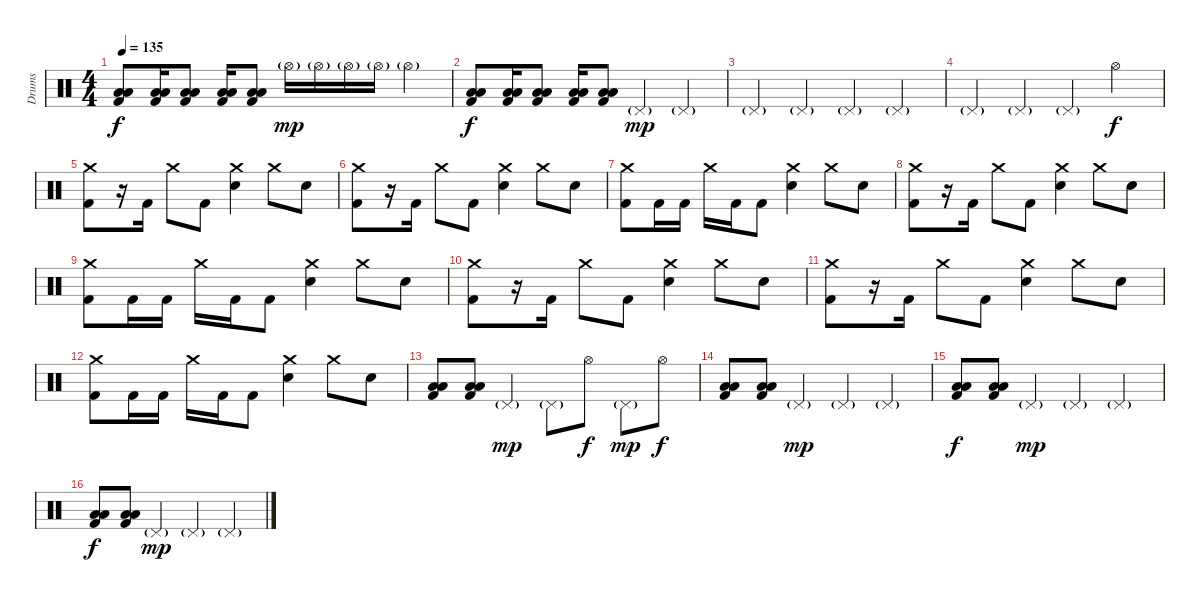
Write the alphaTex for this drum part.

\track ("Drums" "Drums") {instrument percussion}
\staff {score}
\articulation defaults
\ts (4 4)
\tempo 135
\clef neutral
\ks c
("Low Tom (hit)" "Low Floor Tom (hit)" "Kick (hit) 2").8{dy f} ("Low Tom (hit)" "Low Floor Tom (hit)" "Kick (hit) 2").16 ("Low Tom (hit)" "Low Floor Tom (hit)" "Kick (hit) 2").8 ("Low Tom (hit)" "Low Floor Tom (hit)" "Kick (hit) 2").16 ("Low Tom (hit)" "Low Floor Tom (hit)" "Kick (hit) 2").8 "Hi-Hat (open)"{g}.16{dy mp} "Hi-Hat (open)"{g}.16 "Hi-Hat (open)"{g}.16 "Hi-Hat (open)"{g}.16 "Hi-Hat (open)"{g}.4 |
("Low Tom (hit)" "Low Floor Tom (hit)" "Kick (hit) 2").8{dy f} ("Low Tom (hit)" "Low Floor Tom (hit)" "Kick (hit) 2").16 ("Low Tom (hit)" "Low Floor Tom (hit)" "Kick (hit) 2").8 ("Low Tom (hit)" "Low Floor Tom (hit)" "Kick (hit) 2").16 ("Low Tom (hit)" "Low Floor Tom (hit)" "Kick (hit) 2").8 "Pedal Hi-Hat (hit)"{g}.4{dy mp} "Pedal Hi-Hat (hit)"{g}.4 |
"Pedal Hi-Hat (hit)"{g}.4 "Pedal Hi-Hat (hit)"{g}.4 "Pedal Hi-Hat (hit)"{g}.4 "Pedal Hi-Hat (hit)"{g}.4 |
"Pedal Hi-Hat (hit)"{g}.4 "Pedal Hi-Hat (hit)"{g}.4 "Pedal Hi-Hat (hit)"{g}.4 "Hi-Hat (open)".4{dy f} |
("Crash medium (hit)" "Kick (hit) 2").8 r.16 "Kick (hit) 2".16 "Crash medium (hit)".8 "Kick (hit) 2".8 ("Crash medium (hit)" "Electric Snare (hit)").4 "Crash medium (hit)".8 "Electric Snare (hit)".8 |
("Crash medium (hit)" "Kick (hit) 2").8 r.16 "Kick (hit) 2".16 "Crash medium (hit)".8 "Kick (hit) 2".8 ("Crash medium (hit)" "Electric Snare (hit)").4 "Crash medium (hit)".8 "Electric Snare (hit)".8 |
("Crash medium (hit)" "Kick (hit) 2").8 "Kick (hit) 2".16 "Kick (hit) 2".16 "Crash medium (hit)".16 "Kick (hit) 2".16 "Kick (hit) 2".8 ("Crash medium (hit)" "Electric Snare (hit)").4 "Crash medium (hit)".8 "Electric Snare (hit)".8 |
("Crash medium (hit)" "Kick (hit) 2").8 r.16 "Kick (hit) 2".16 "Crash medium (hit)".8 "Kick (hit) 2".8 ("Crash medium (hit)" "Electric Snare (hit)").4 "Crash medium (hit)".8 "Electric Snare (hit)".8 |
("Crash medium (hit)" "Kick (hit) 2").8 "Kick (hit) 2".16 "Kick (hit) 2".16 "Crash medium (hit)".16 "Kick (hit) 2".16 "Kick (hit) 2".8 ("Crash medium (hit)" "Electric Snare (hit)").4 "Crash medium (hit)".8 "Electric Snare (hit)".8 |
("Crash medium (hit)" "Kick (hit) 2").8 r.16 "Kick (hit) 2".16 "Crash medium (hit)".8 "Kick (hit) 2".8 ("Crash medium (hit)" "Electric Snare (hit)").4 "Crash medium (hit)".8 "Electric Snare (hit)".8 |
("Crash medium (hit)" "Kick (hit) 2").8 r.16 "Kick (hit) 2".16 "Crash medium (hit)".8 "Kick (hit) 2".8 ("Crash medium (hit)" "Electric Snare (hit)").4 "Crash medium (hit)".8 "Electric Snare (hit)".8 |
("Crash medium (hit)" "Kick (hit) 2").8 "Kick (hit) 2".16 "Kick (hit) 2".16 "Crash medium (hit)".16 "Kick (hit) 2".16 "Kick (hit) 2".8 ("Crash medium (hit)" "Electric Snare (hit)").4 "Crash medium (hit)".8 "Electric Snare (hit)".8 |
("Low Tom (hit)" "Low Floor Tom (hit)" "Kick (hit) 2").8 ("Low Tom (hit)" "Low Floor Tom (hit)" "Kick (hit) 2").8 "Pedal Hi-Hat (hit)"{g}.4{dy mp} "Pedal Hi-Hat (hit)"{g}.8 "Hi-Hat (open)".8{dy f} "Pedal Hi-Hat (hit)"{g}.8{dy mp} "Hi-Hat (open)".8{dy f} |
("Low Tom (hit)" "Low Floor Tom (hit)" "Kick (hit) 2").8 ("Low Tom (hit)" "Low Floor Tom (hit)" "Kick (hit) 2").8 "Pedal Hi-Hat (hit)"{g}.4{dy mp} "Pedal Hi-Hat (hit)"{g}.4 "Pedal Hi-Hat (hit)"{g}.4 |
("Low Tom (hit)" "Low Floor Tom (hit)" "Kick (hit) 2").8{dy f} ("Low Tom (hit)" "Low Floor Tom (hit)" "Kick (hit) 2").8 "Pedal Hi-Hat (hit)"{g}.4{dy mp} "Pedal Hi-Hat (hit)"{g}.4 "Pedal Hi-Hat (hit)"{g}.4 |
("Low Tom (hit)" "Low Floor Tom (hit)" "Kick (hit) 2").8{dy f} ("Low Tom (hit)" "Low Floor Tom (hit)" "Kick (hit) 2").8 "Pedal Hi-Hat (hit)"{g}.4{dy mp} "Pedal Hi-Hat (hit)"{g}.4 "Pedal Hi-Hat (hit)"{g}.4
